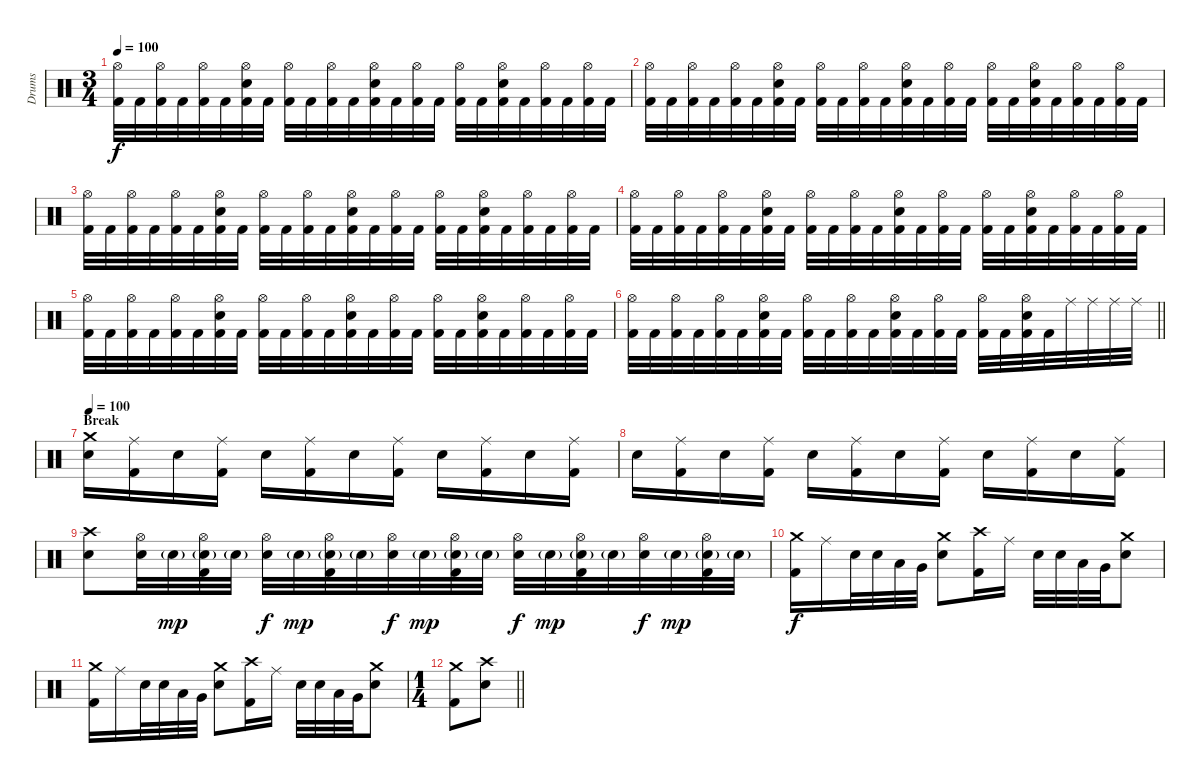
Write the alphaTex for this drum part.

\track ("Drums" "Drums") {instrument percussion}
\staff {score}
\articulation defaults
\ts (3 4)
\tempo 100
\clef neutral
\ks c
("Hi-Hat (open)" "Kick (hit) 2").32{dy f} "Kick (hit) 2".32 ("Hi-Hat (open)" "Kick (hit) 2").32 "Kick (hit) 2".32 ("Hi-Hat (open)" "Kick (hit) 2").32 "Kick (hit) 2".32 ("Hi-Hat (open)" "Electric Snare (hit)" "Kick (hit) 2").32 "Kick (hit) 2".32 ("Hi-Hat (open)" "Kick (hit) 2").32 "Kick (hit) 2".32 ("Hi-Hat (open)" "Kick (hit) 2").32 "Kick (hit) 2".32 ("Hi-Hat (open)" "Electric Snare (hit)" "Kick (hit) 2").32 "Kick (hit) 2".32 ("Hi-Hat (open)" "Kick (hit) 2").32 "Kick (hit) 2".32 ("Hi-Hat (open)" "Kick (hit) 2").32 "Kick (hit) 2".32 ("Hi-Hat (open)" "Electric Snare (hit)" "Kick (hit) 2").32 "Kick (hit) 2".32 ("Hi-Hat (open)" "Kick (hit) 2").32 "Kick (hit) 2".32 ("Hi-Hat (open)" "Kick (hit) 2").32 "Kick (hit) 2".32 |
("Hi-Hat (open)" "Kick (hit) 2").32 "Kick (hit) 2".32 ("Hi-Hat (open)" "Kick (hit) 2").32 "Kick (hit) 2".32 ("Hi-Hat (open)" "Kick (hit) 2").32 "Kick (hit) 2".32 ("Hi-Hat (open)" "Electric Snare (hit)" "Kick (hit) 2").32 "Kick (hit) 2".32 ("Hi-Hat (open)" "Kick (hit) 2").32 "Kick (hit) 2".32 ("Hi-Hat (open)" "Kick (hit) 2").32 "Kick (hit) 2".32 ("Hi-Hat (open)" "Electric Snare (hit)" "Kick (hit) 2").32 "Kick (hit) 2".32 ("Hi-Hat (open)" "Kick (hit) 2").32 "Kick (hit) 2".32 ("Hi-Hat (open)" "Kick (hit) 2").32 "Kick (hit) 2".32 ("Hi-Hat (open)" "Electric Snare (hit)" "Kick (hit) 2").32 "Kick (hit) 2".32 ("Hi-Hat (open)" "Kick (hit) 2").32 "Kick (hit) 2".32 ("Hi-Hat (open)" "Kick (hit) 2").32 "Kick (hit) 2".32 |
("Hi-Hat (open)" "Kick (hit) 2").32 "Kick (hit) 2".32 ("Hi-Hat (open)" "Kick (hit) 2").32 "Kick (hit) 2".32 ("Hi-Hat (open)" "Kick (hit) 2").32 "Kick (hit) 2".32 ("Hi-Hat (open)" "Electric Snare (hit)" "Kick (hit) 2").32 "Kick (hit) 2".32 ("Hi-Hat (open)" "Kick (hit) 2").32 "Kick (hit) 2".32 ("Hi-Hat (open)" "Kick (hit) 2").32 "Kick (hit) 2".32 ("Hi-Hat (open)" "Electric Snare (hit)" "Kick (hit) 2").32 "Kick (hit) 2".32 ("Hi-Hat (open)" "Kick (hit) 2").32 "Kick (hit) 2".32 ("Hi-Hat (open)" "Kick (hit) 2").32 "Kick (hit) 2".32 ("Hi-Hat (open)" "Electric Snare (hit)" "Kick (hit) 2").32 "Kick (hit) 2".32 ("Hi-Hat (open)" "Kick (hit) 2").32 "Kick (hit) 2".32 ("Hi-Hat (open)" "Kick (hit) 2").32 "Kick (hit) 2".32 |
("Hi-Hat (open)" "Kick (hit) 2").32 "Kick (hit) 2".32 ("Hi-Hat (open)" "Kick (hit) 2").32 "Kick (hit) 2".32 ("Hi-Hat (open)" "Kick (hit) 2").32 "Kick (hit) 2".32 ("Hi-Hat (open)" "Electric Snare (hit)" "Kick (hit) 2").32 "Kick (hit) 2".32 ("Hi-Hat (open)" "Kick (hit) 2").32 "Kick (hit) 2".32 ("Hi-Hat (open)" "Kick (hit) 2").32 "Kick (hit) 2".32 ("Hi-Hat (open)" "Electric Snare (hit)" "Kick (hit) 2").32 "Kick (hit) 2".32 ("Hi-Hat (open)" "Kick (hit) 2").32 "Kick (hit) 2".32 ("Hi-Hat (open)" "Kick (hit) 2").32 "Kick (hit) 2".32 ("Hi-Hat (open)" "Electric Snare (hit)" "Kick (hit) 2").32 "Kick (hit) 2".32 ("Hi-Hat (open)" "Kick (hit) 2").32 "Kick (hit) 2".32 ("Hi-Hat (open)" "Kick (hit) 2").32 "Kick (hit) 2".32 |
("Hi-Hat (open)" "Kick (hit) 2").32 "Kick (hit) 2".32 ("Hi-Hat (open)" "Kick (hit) 2").32 "Kick (hit) 2".32 ("Hi-Hat (open)" "Kick (hit) 2").32 "Kick (hit) 2".32 ("Hi-Hat (open)" "Electric Snare (hit)" "Kick (hit) 2").32 "Kick (hit) 2".32 ("Hi-Hat (open)" "Kick (hit) 2").32 "Kick (hit) 2".32 ("Hi-Hat (open)" "Kick (hit) 2").32 "Kick (hit) 2".32 ("Hi-Hat (open)" "Electric Snare (hit)" "Kick (hit) 2").32 "Kick (hit) 2".32 ("Hi-Hat (open)" "Kick (hit) 2").32 "Kick (hit) 2".32 ("Hi-Hat (open)" "Kick (hit) 2").32 "Kick (hit) 2".32 ("Hi-Hat (open)" "Electric Snare (hit)" "Kick (hit) 2").32 "Kick (hit) 2".32 ("Hi-Hat (open)" "Kick (hit) 2").32 "Kick (hit) 2".32 ("Hi-Hat (open)" "Kick (hit) 2").32 "Kick (hit) 2".32 |
\barLineRight lightlight
("Hi-Hat (open)" "Kick (hit) 2").32 "Kick (hit) 2".32 ("Hi-Hat (open)" "Kick (hit) 2").32 "Kick (hit) 2".32 ("Hi-Hat (open)" "Kick (hit) 2").32 "Kick (hit) 2".32 ("Hi-Hat (open)" "Electric Snare (hit)" "Kick (hit) 2").32 "Kick (hit) 2".32 ("Hi-Hat (open)" "Kick (hit) 2").32 "Kick (hit) 2".32 ("Hi-Hat (open)" "Kick (hit) 2").32 "Kick (hit) 2".32 ("Hi-Hat (open)" "Electric Snare (hit)" "Kick (hit) 2").32 "Kick (hit) 2".32 ("Hi-Hat (open)" "Kick (hit) 2").32 "Kick (hit) 2".32 ("Hi-Hat (open)" "Kick (hit) 2").32 "Kick (hit) 2".32 ("Hi-Hat (open)" "Electric Snare (hit)" "Kick (hit) 2").32 "Kick (hit) 2".32 "Ride (middle)".32 "Ride (middle)".32 "Ride (middle)".32 "Ride (middle)".32 |
\section ("" "Break")
\tempo 100
("Crash medium (hit)" "Electric Snare (hit)").16 ("Ride (middle)" "Kick (hit) 2").16 "Electric Snare (hit)".16 ("Ride (middle)" "Kick (hit) 2").16 "Electric Snare (hit)".16 ("Ride (middle)" "Kick (hit) 2").16 "Electric Snare (hit)".16 ("Ride (middle)" "Kick (hit) 2").16 "Electric Snare (hit)".16 ("Ride (middle)" "Kick (hit) 2").16 "Electric Snare (hit)".16 ("Ride (middle)" "Kick (hit) 2").16 |
"Electric Snare (hit)".16 ("Ride (middle)" "Kick (hit) 2").16 "Electric Snare (hit)".16 ("Ride (middle)" "Kick (hit) 2").16 "Electric Snare (hit)".16 ("Ride (middle)" "Kick (hit) 2").16 "Electric Snare (hit)".16 ("Ride (middle)" "Kick (hit) 2").16 "Electric Snare (hit)".16 ("Ride (middle)" "Kick (hit) 2").16 "Electric Snare (hit)".16 ("Ride (middle)" "Kick (hit) 2").16 |
("Crash high (hit)" "Electric Snare (hit)").8 ("Hi-Hat (open)" "Electric Snare (hit)").32 "Electric Snare (hit)"{g}.32{dy mp} ("Hi-Hat (open)" "Electric Snare (hit)"{g} "Kick (hit) 2").32 "Electric Snare (hit)"{g}.32 ("Hi-Hat (open)" "Electric Snare (hit)").32{dy f} "Electric Snare (hit)"{g}.32{dy mp} ("Hi-Hat (open)" "Electric Snare (hit)"{g} "Kick (hit) 2").32 "Electric Snare (hit)"{g}.32 ("Hi-Hat (open)" "Electric Snare (hit)").32{dy f} "Electric Snare (hit)"{g}.32{dy mp} ("Hi-Hat (open)" "Electric Snare (hit)"{g} "Kick (hit) 2").32 "Electric Snare (hit)"{g}.32 ("Hi-Hat (open)" "Electric Snare (hit)").32{dy f} "Electric Snare (hit)"{g}.32{dy mp} ("Hi-Hat (open)" "Electric Snare (hit)"{g} "Kick (hit) 2").32 "Electric Snare (hit)"{g}.32 ("Hi-Hat (open)" "Electric Snare (hit)").32{dy f} "Electric Snare (hit)"{g}.32{dy mp} ("Hi-Hat (open)" "Electric Snare (hit)"{g} "Kick (hit) 2").32 "Electric Snare (hit)"{g}.32 |
("Crash medium (hit)" "Kick (hit) 2").16{dy f} "Ride (middle)".16 "Electric Snare (hit)".32 "Electric Snare (hit)".32 "Low Tom (hit)".32 "Very Low Tom (hit)".32 ("Crash medium (hit)" "Electric Snare (hit)").8 ("Crash high (hit)" "Kick (hit) 2").16 "Ride (middle)".16 "Electric Snare (hit)".32 "Electric Snare (hit)".32 "Low Tom (hit)".32 "Very Low Tom (hit)".32 ("Crash medium (hit)" "Electric Snare (hit)").8 |
("Crash medium (hit)" "Kick (hit) 2").16 "Ride (middle)".16 "Electric Snare (hit)".32 "Electric Snare (hit)".32 "Low Tom (hit)".32 "Very Low Tom (hit)".32 ("Crash medium (hit)" "Electric Snare (hit)").8 ("Crash high (hit)" "Kick (hit) 2").16 "Ride (middle)".16 "Electric Snare (hit)".32 "Electric Snare (hit)".32 "Low Tom (hit)".32 "Very Low Tom (hit)".32 ("Crash medium (hit)" "Electric Snare (hit)").8 |
\ts (1 4)
\barLineRight lightlight
("Crash medium (hit)" "Kick (hit) 2").8 ("Crash high (hit)" "Electric Snare (hit)").8
